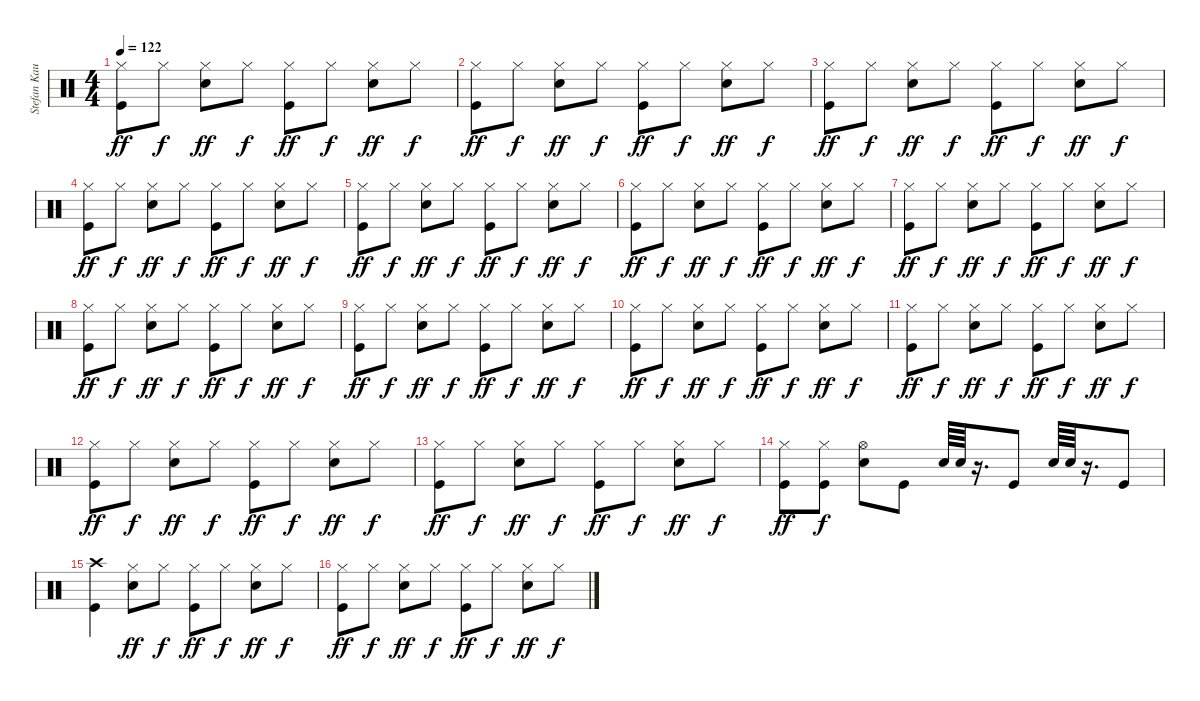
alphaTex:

\track ("Stefan Kaufmann" "Stefan Kau") {instrument percussion}
\staff {score}
\articulation defaults
\ts (4 4)
\tempo 122
\clef neutral
\ks c
("Hi-Hat (closed)" "Kick (hit)").8{dy ff} "Hi-Hat (closed)".8{dy f} ("Hi-Hat (closed)" "Snare (hit) 2").8{dy ff} "Hi-Hat (closed)".8{dy f} ("Hi-Hat (closed)" "Kick (hit)").8{dy ff} "Hi-Hat (closed)".8{dy f} ("Hi-Hat (closed)" "Snare (hit) 2").8{dy ff} "Hi-Hat (closed)".8{dy f} |
("Hi-Hat (closed)" "Kick (hit)").8{dy ff} "Hi-Hat (closed)".8{dy f} ("Hi-Hat (closed)" "Snare (hit) 2").8{dy ff} "Hi-Hat (closed)".8{dy f} ("Hi-Hat (closed)" "Kick (hit)").8{dy ff} "Hi-Hat (closed)".8{dy f} ("Hi-Hat (closed)" "Snare (hit) 2").8{dy ff} "Hi-Hat (closed)".8{dy f} |
("Hi-Hat (closed)" "Kick (hit)").8{dy ff} "Hi-Hat (closed)".8{dy f} ("Hi-Hat (closed)" "Snare (hit) 2").8{dy ff} "Hi-Hat (closed)".8{dy f} ("Hi-Hat (closed)" "Kick (hit)").8{dy ff} "Hi-Hat (closed)".8{dy f} ("Hi-Hat (closed)" "Snare (hit) 2").8{dy ff} "Hi-Hat (closed)".8{dy f} |
("Hi-Hat (closed)" "Kick (hit)").8{dy ff} "Hi-Hat (closed)".8{dy f} ("Hi-Hat (closed)" "Snare (hit) 2").8{dy ff} "Hi-Hat (closed)".8{dy f} ("Hi-Hat (closed)" "Kick (hit)").8{dy ff} "Hi-Hat (closed)".8{dy f} ("Hi-Hat (closed)" "Snare (hit) 2").8{dy ff} "Hi-Hat (closed)".8{dy f} |
("Hi-Hat (closed)" "Kick (hit)").8{dy ff} "Hi-Hat (closed)".8{dy f} ("Hi-Hat (closed)" "Snare (hit) 2").8{dy ff} "Hi-Hat (closed)".8{dy f} ("Hi-Hat (closed)" "Kick (hit)").8{dy ff} "Hi-Hat (closed)".8{dy f} ("Hi-Hat (closed)" "Snare (hit) 2").8{dy ff} "Hi-Hat (closed)".8{dy f} |
("Hi-Hat (closed)" "Kick (hit)").8{dy ff} "Hi-Hat (closed)".8{dy f} ("Hi-Hat (closed)" "Snare (hit) 2").8{dy ff} "Hi-Hat (closed)".8{dy f} ("Hi-Hat (closed)" "Kick (hit)").8{dy ff} "Hi-Hat (closed)".8{dy f} ("Hi-Hat (closed)" "Snare (hit) 2").8{dy ff} "Hi-Hat (closed)".8{dy f} |
("Hi-Hat (closed)" "Kick (hit)").8{dy ff} "Hi-Hat (closed)".8{dy f} ("Hi-Hat (closed)" "Snare (hit) 2").8{dy ff} "Hi-Hat (closed)".8{dy f} ("Hi-Hat (closed)" "Kick (hit)").8{dy ff} "Hi-Hat (closed)".8{dy f} ("Hi-Hat (closed)" "Snare (hit) 2").8{dy ff} "Hi-Hat (closed)".8{dy f} |
("Hi-Hat (closed)" "Kick (hit)").8{dy ff} "Hi-Hat (closed)".8{dy f} ("Hi-Hat (closed)" "Snare (hit) 2").8{dy ff} "Hi-Hat (closed)".8{dy f} ("Hi-Hat (closed)" "Kick (hit)").8{dy ff} "Hi-Hat (closed)".8{dy f} ("Hi-Hat (closed)" "Snare (hit) 2").8{dy ff} "Hi-Hat (closed)".8{dy f} |
("Hi-Hat (closed)" "Kick (hit)").8{dy ff} "Hi-Hat (closed)".8{dy f} ("Hi-Hat (closed)" "Snare (hit) 2").8{dy ff} "Hi-Hat (closed)".8{dy f} ("Hi-Hat (closed)" "Kick (hit)").8{dy ff} "Hi-Hat (closed)".8{dy f} ("Hi-Hat (closed)" "Snare (hit) 2").8{dy ff} "Hi-Hat (closed)".8{dy f} |
("Hi-Hat (closed)" "Kick (hit)").8{dy ff} "Hi-Hat (closed)".8{dy f} ("Hi-Hat (closed)" "Snare (hit) 2").8{dy ff} "Hi-Hat (closed)".8{dy f} ("Hi-Hat (closed)" "Kick (hit)").8{dy ff} "Hi-Hat (closed)".8{dy f} ("Hi-Hat (closed)" "Snare (hit) 2").8{dy ff} "Hi-Hat (closed)".8{dy f} |
("Hi-Hat (closed)" "Kick (hit)").8{dy ff} "Hi-Hat (closed)".8{dy f} ("Hi-Hat (closed)" "Snare (hit) 2").8{dy ff} "Hi-Hat (closed)".8{dy f} ("Hi-Hat (closed)" "Kick (hit)").8{dy ff} "Hi-Hat (closed)".8{dy f} ("Hi-Hat (closed)" "Snare (hit) 2").8{dy ff} "Hi-Hat (closed)".8{dy f} |
("Hi-Hat (closed)" "Kick (hit)").8{dy ff} "Hi-Hat (closed)".8{dy f} ("Hi-Hat (closed)" "Snare (hit) 2").8{dy ff} "Hi-Hat (closed)".8{dy f} ("Hi-Hat (closed)" "Kick (hit)").8{dy ff} "Hi-Hat (closed)".8{dy f} ("Hi-Hat (closed)" "Snare (hit) 2").8{dy ff} "Hi-Hat (closed)".8{dy f} |
("Hi-Hat (closed)" "Kick (hit)").8{dy ff} "Hi-Hat (closed)".8{dy f} ("Hi-Hat (closed)" "Snare (hit) 2").8{dy ff} "Hi-Hat (closed)".8{dy f} ("Hi-Hat (closed)" "Kick (hit)").8{dy ff} "Hi-Hat (closed)".8{dy f} ("Hi-Hat (closed)" "Snare (hit) 2").8{dy ff} "Hi-Hat (closed)".8{dy f} |
("Hi-Hat (closed)" "Kick (hit)").8{dy ff} ("Hi-Hat (closed)" "Kick (hit)").8{dy f} ("Hi-Hat (open)" "Snare (hit) 2").8 "Kick (hit)".8 "Snare (hit) 2".64 "Snare (hit) 2".64 r.16{d} "Kick (hit)".8 "Snare (hit) 2".64 "Snare (hit) 2".64 r.16{d} "Kick (hit)".8 |
("Crash high (hit)" "Kick (hit)").4 ("Hi-Hat (closed)" "Snare (hit) 2").8{dy ff} "Hi-Hat (closed)".8{dy f} ("Hi-Hat (closed)" "Kick (hit)").8{dy ff} "Hi-Hat (closed)".8{dy f} ("Hi-Hat (closed)" "Snare (hit) 2").8{dy ff} "Hi-Hat (closed)".8{dy f} |
("Hi-Hat (closed)" "Kick (hit)").8{dy ff} "Hi-Hat (closed)".8{dy f} ("Hi-Hat (closed)" "Snare (hit) 2").8{dy ff} "Hi-Hat (closed)".8{dy f} ("Hi-Hat (closed)" "Kick (hit)").8{dy ff} "Hi-Hat (closed)".8{dy f} ("Hi-Hat (closed)" "Snare (hit) 2").8{dy ff} "Hi-Hat (closed)".8{dy f}
